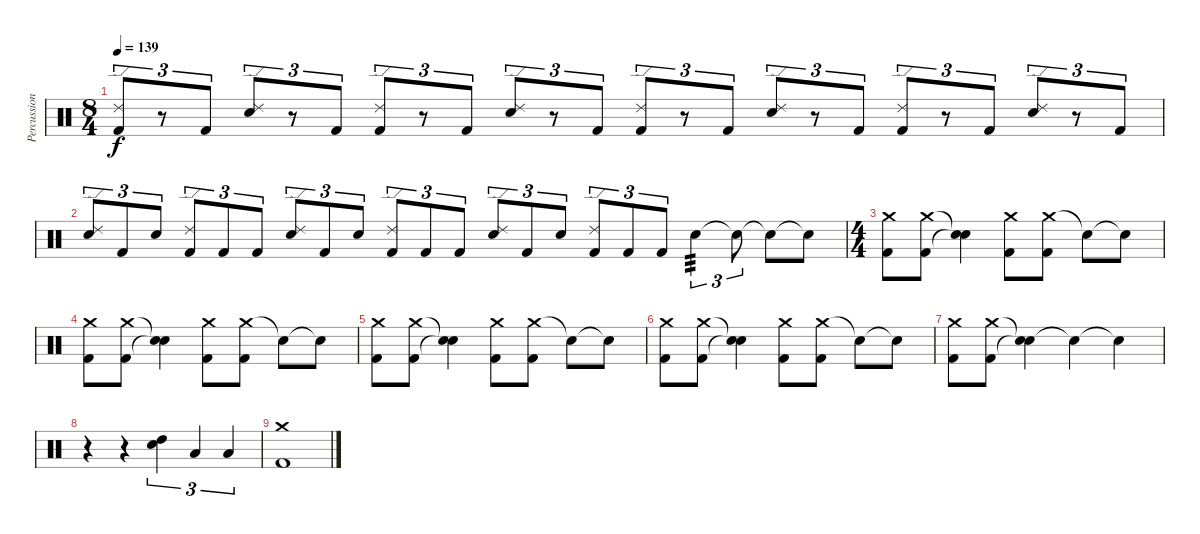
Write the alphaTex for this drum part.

\track ("Percussion" "Percussion") {instrument percussion}
\staff {score}
\articulation defaults
\ts (8 4)
\tempo 139
\clef neutral
\ks c
("Kick (hit) 2" "Ride (edge) 2").8{tu (3 2) dy f} r.8{tu (3 2)} "Kick (hit) 2".8{tu (3 2)} ("Snare (hit) 2" "Ride (edge) 2").8{tu (3 2)} r.8{tu (3 2)} "Kick (hit) 2".8{tu (3 2)} ("Kick (hit) 2" "Ride (edge) 2").8{tu (3 2)} r.8{tu (3 2)} "Kick (hit) 2".8{tu (3 2)} ("Snare (hit) 2" "Ride (edge) 2").8{tu (3 2)} r.8{tu (3 2)} "Kick (hit) 2".8{tu (3 2)} ("Kick (hit) 2" "Ride (edge) 2").8{tu (3 2)} r.8{tu (3 2)} "Kick (hit) 2".8{tu (3 2)} ("Snare (hit) 2" "Ride (edge) 2").8{tu (3 2)} r.8{tu (3 2)} "Kick (hit) 2".8{tu (3 2)} ("Kick (hit) 2" "Ride (edge) 2").8{tu (3 2)} r.8{tu (3 2)} "Kick (hit) 2".8{tu (3 2)} ("Snare (hit) 2" "Ride (edge) 2").8{tu (3 2)} r.8{tu (3 2)} "Kick (hit) 2".8{tu (3 2)} |
("Snare (hit) 2" "Ride (edge) 2").8{tu (3 2)} "Kick (hit) 2".8{tu (3 2)} "Snare (hit) 2".8{tu (3 2)} ("Kick (hit) 2" "Ride (edge) 2").8{tu (3 2)} "Kick (hit) 2".8{tu (3 2)} "Kick (hit) 2".8{tu (3 2)} ("Snare (hit) 2" "Ride (edge) 2").8{tu (3 2)} "Kick (hit) 2".8{tu (3 2)} "Snare (hit) 2".8{tu (3 2)} ("Kick (hit) 2" "Ride (edge) 2").8{tu (3 2)} "Kick (hit) 2".8{tu (3 2)} "Kick (hit) 2".8{tu (3 2)} ("Snare (hit) 2" "Ride (edge) 2").8{tu (3 2)} "Kick (hit) 2".8{tu (3 2)} "Snare (hit) 2".8{tu (3 2)} ("Kick (hit) 2" "Ride (edge) 2").8{tu (3 2)} "Kick (hit) 2".8{tu (3 2)} "Kick (hit) 2".8{tu (3 2)} "Snare (hit) 2".4{tu (3 2) tp 3} "Snare (hit)"{t}.8{tu (3 2)} "Snare (hit)"{t}.8 "Snare (hit)"{t}.8 |
\ts (4 4)
("Crash medium (hit)" "Kick (hit) 2").8 ("Crash medium (hit)" "Kick (hit) 2").8 ("Snare (hit)"{t} "Snare (hit)"{t}).4 ("Crash medium (hit)" "Kick (hit) 2").8 ("Crash medium (hit)" "Kick (hit) 2").8 "Snare (hit)"{t}.8 "Snare (hit)"{t}.8 |
("Crash medium (hit)" "Kick (hit) 2").8 ("Crash medium (hit)" "Kick (hit) 2").8 ("Snare (hit)"{t} "Snare (hit)"{t}).4 ("Crash medium (hit)" "Kick (hit) 2").8 ("Crash medium (hit)" "Kick (hit) 2").8 "Snare (hit)"{t}.8 "Snare (hit)"{t}.8 |
("Crash medium (hit)" "Kick (hit) 2").8 ("Crash medium (hit)" "Kick (hit) 2").8 ("Snare (hit)"{t} "Snare (hit)"{t}).4 ("Crash medium (hit)" "Kick (hit) 2").8 ("Crash medium (hit)" "Kick (hit) 2").8 "Snare (hit)"{t}.8 "Snare (hit)"{t}.8 |
("Crash medium (hit)" "Kick (hit) 2").8 ("Crash medium (hit)" "Kick (hit) 2").8 ("Snare (hit)"{t} "Snare (hit)"{t}).4 ("Crash medium (hit)" "Kick (hit) 2").8 ("Crash medium (hit)" "Kick (hit) 2").8 "Snare (hit)"{t}.8 "Snare (hit)"{t}.8 |
("Crash medium (hit)" "Kick (hit) 2").8 ("Crash medium (hit)" "Kick (hit) 2").8 ("Snare (hit)"{t} "Snare (hit)"{t}).4 "Snare (hit)"{t}.4 "Snare (hit)"{t}.4 |
r.4 r.4 ("High Tom (hit)" "Snare (hit) 2").4{tu (3 2)} "Low Tom (hit)".4{tu (3 2)} "Low Floor Tom (hit)".4{tu (3 2)} |
("Crash medium (hit)" "Kick (hit) 2").1
